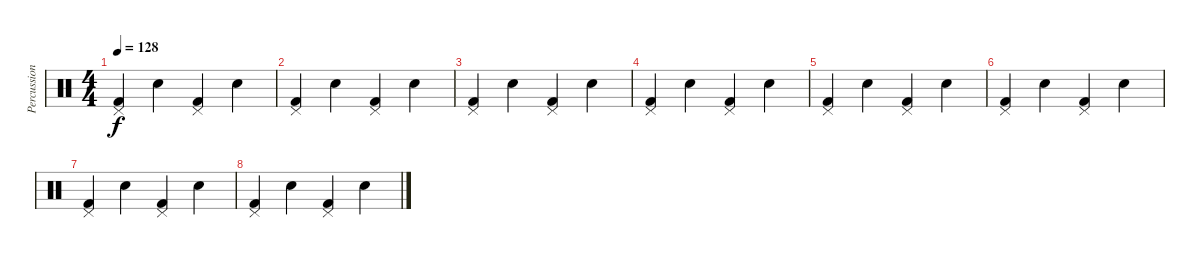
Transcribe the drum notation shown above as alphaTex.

\track ("Percussion" "Percussion") {instrument percussion}
\staff {score}
\articulation defaults
\ts (4 4)
\tempo 128
\clef neutral
\ks c
("Kick (hit) 2" "Pedal Hi-Hat (hit)").4{dy f} "Snare (hit) 2".4 ("Pedal Hi-Hat (hit)" "Kick (hit) 2").4 "Snare (hit) 2".4 |
("Kick (hit) 2" "Pedal Hi-Hat (hit)").4 "Snare (hit) 2".4 ("Pedal Hi-Hat (hit)" "Kick (hit) 2").4 "Snare (hit) 2".4 |
("Kick (hit) 2" "Pedal Hi-Hat (hit)").4 "Snare (hit) 2".4 ("Pedal Hi-Hat (hit)" "Kick (hit) 2").4 "Snare (hit) 2".4 |
("Kick (hit) 2" "Pedal Hi-Hat (hit)").4 "Snare (hit) 2".4 ("Pedal Hi-Hat (hit)" "Kick (hit) 2").4 "Snare (hit) 2".4 |
("Kick (hit) 2" "Pedal Hi-Hat (hit)").4 "Snare (hit) 2".4 ("Pedal Hi-Hat (hit)" "Kick (hit) 2").4 "Snare (hit) 2".4 |
("Kick (hit) 2" "Pedal Hi-Hat (hit)").4 "Snare (hit) 2".4 ("Pedal Hi-Hat (hit)" "Kick (hit) 2").4 "Snare (hit) 2".4 |
("Kick (hit) 2" "Pedal Hi-Hat (hit)").4 "Snare (hit) 2".4 ("Pedal Hi-Hat (hit)" "Kick (hit) 2").4 "Snare (hit) 2".4 |
("Kick (hit) 2" "Pedal Hi-Hat (hit)").4 "Snare (hit) 2".4 ("Pedal Hi-Hat (hit)" "Kick (hit) 2").4 "Snare (hit) 2".4
